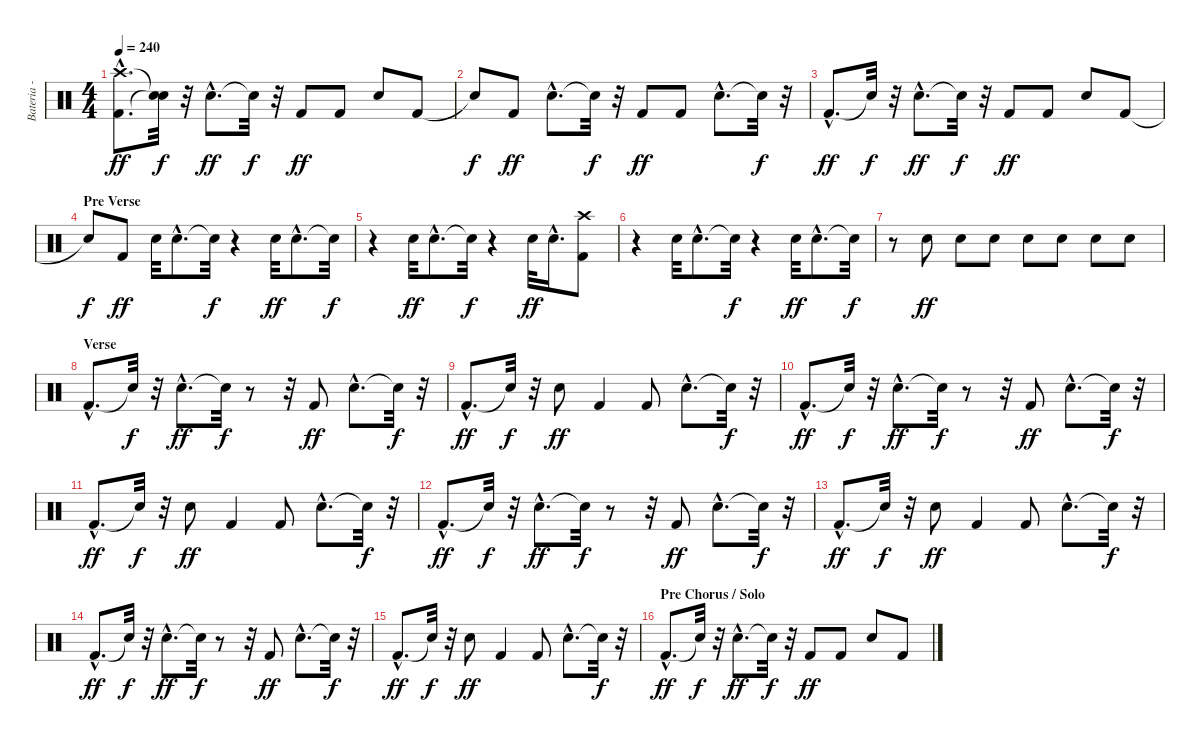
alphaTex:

\track ("Bateria - Larzon" "Bateria - ") {instrument percussion}
\staff {score}
\articulation defaults
\ts (4 4)
\tempo 240
\clef neutral
\ks c
("Kick (hit) 2"{hac} "Crash high (hit)"{hac}).8{d dy ff} ("Snare (hit)"{t} "Snare (hit)"{t}).32{dy f} r.32 "Electric Snare (hit)"{hac}.8{d dy ff} "Snare (hit)"{t}.32{dy f} r.32 "Kick (hit) 2".8{dy ff} "Kick (hit) 2".8 "Electric Snare (hit)".8 "Kick (hit) 2".8 |
"Snare (hit)"{t}.8{dy f} "Kick (hit) 2".8{dy ff} "Electric Snare (hit)"{hac}.8{d} "Snare (hit)"{t}.32{dy f} r.32 "Kick (hit) 2".8{dy ff} "Kick (hit) 2".8 "Electric Snare (hit)"{hac}.8{d} "Snare (hit)"{t}.32{dy f} r.32 |
"Kick (hit) 2"{hac}.8{d dy ff} "Snare (hit)"{t}.32{dy f} r.32 "Electric Snare (hit)"{hac}.8{d dy ff} "Snare (hit)"{t}.32{dy f} r.32 "Kick (hit) 2".8{dy ff} "Kick (hit) 2".8 "Electric Snare (hit)".8 "Kick (hit) 2".8 |
\section ("" "Pre Verse")
"Snare (hit)"{t}.8{dy f} "Kick (hit) 2".8{dy ff} "Electric Snare (hit)".32 "Electric Snare (hit)"{hac}.8{d} "Snare (hit)"{t}.32{dy f} r.4 "Electric Snare (hit)".32{dy ff} "Electric Snare (hit)"{hac}.8{d} "Snare (hit)"{t}.32{dy f} |
r.4 "Electric Snare (hit)".32{dy ff} "Electric Snare (hit)"{hac}.8{d} "Snare (hit)"{t}.32{dy f} r.4 "Electric Snare (hit)".32{dy ff} "Electric Snare (hit)"{hac}.16{d} ("Kick (hit) 2" "Crash high (hit)").8 |
r.4 "Electric Snare (hit)".32 "Electric Snare (hit)"{hac}.8{d} "Snare (hit)"{t}.32{dy f} r.4 "Electric Snare (hit)".32{dy ff} "Electric Snare (hit)"{hac}.8{d} "Snare (hit)"{t}.32{dy f} |
r.8 "Electric Snare (hit)".8{dy ff} "Electric Snare (hit)".8 "Electric Snare (hit)".8 "Electric Snare (hit)".8 "Electric Snare (hit)".8 "Electric Snare (hit)".8 "Electric Snare (hit)".8 |
\section ("" "Verse")
"Kick (hit) 2"{hac}.8{d} "Snare (hit)"{t}.32{dy f} r.32 "Electric Snare (hit)"{hac}.8{d dy ff} "Snare (hit)"{t}.32{dy f} r.8 r.32 "Kick (hit) 2".8{dy ff} "Electric Snare (hit)"{hac}.8{d} "Snare (hit)"{t}.32{dy f} r.32 |
"Kick (hit) 2"{hac}.8{d dy ff} "Snare (hit)"{t}.32{dy f} r.32 "Electric Snare (hit)".8{dy ff} "Kick (hit) 2".4 "Kick (hit) 2".8 "Electric Snare (hit)"{hac}.8{d} "Snare (hit)"{t}.32{dy f} r.32 |
"Kick (hit) 2"{hac}.8{d dy ff} "Snare (hit)"{t}.32{dy f} r.32 "Electric Snare (hit)"{hac}.8{d dy ff} "Snare (hit)"{t}.32{dy f} r.8 r.32 "Kick (hit) 2".8{dy ff} "Electric Snare (hit)"{hac}.8{d} "Snare (hit)"{t}.32{dy f} r.32 |
"Kick (hit) 2"{hac}.8{d dy ff} "Snare (hit)"{t}.32{dy f} r.32 "Electric Snare (hit)".8{dy ff} "Kick (hit) 2".4 "Kick (hit) 2".8 "Electric Snare (hit)"{hac}.8{d} "Snare (hit)"{t}.32{dy f} r.32 |
"Kick (hit) 2"{hac}.8{d dy ff} "Snare (hit)"{t}.32{dy f} r.32 "Electric Snare (hit)"{hac}.8{d dy ff} "Snare (hit)"{t}.32{dy f} r.8 r.32 "Kick (hit) 2".8{dy ff} "Electric Snare (hit)"{hac}.8{d} "Snare (hit)"{t}.32{dy f} r.32 |
"Kick (hit) 2"{hac}.8{d dy ff} "Snare (hit)"{t}.32{dy f} r.32 "Electric Snare (hit)".8{dy ff} "Kick (hit) 2".4 "Kick (hit) 2".8 "Electric Snare (hit)"{hac}.8{d} "Snare (hit)"{t}.32{dy f} r.32 |
"Kick (hit) 2"{hac}.8{d dy ff} "Snare (hit)"{t}.32{dy f} r.32 "Electric Snare (hit)"{hac}.8{d dy ff} "Snare (hit)"{t}.32{dy f} r.8 r.32 "Kick (hit) 2".8{dy ff} "Electric Snare (hit)"{hac}.8{d} "Snare (hit)"{t}.32{dy f} r.32 |
"Kick (hit) 2"{hac}.8{d dy ff} "Snare (hit)"{t}.32{dy f} r.32 "Electric Snare (hit)".8{dy ff} "Kick (hit) 2".4 "Kick (hit) 2".8 "Electric Snare (hit)"{hac}.8{d} "Snare (hit)"{t}.32{dy f} r.32 |
\section ("" "Pre Chorus / Solo")
"Kick (hit) 2"{hac}.8{d dy ff} "Snare (hit)"{t}.32{dy f} r.32 "Electric Snare (hit)"{hac}.8{d dy ff} "Snare (hit)"{t}.32{dy f} r.32 "Kick (hit) 2".8{dy ff} "Kick (hit) 2".8 "Electric Snare (hit)".8 "Kick (hit) 2".8
